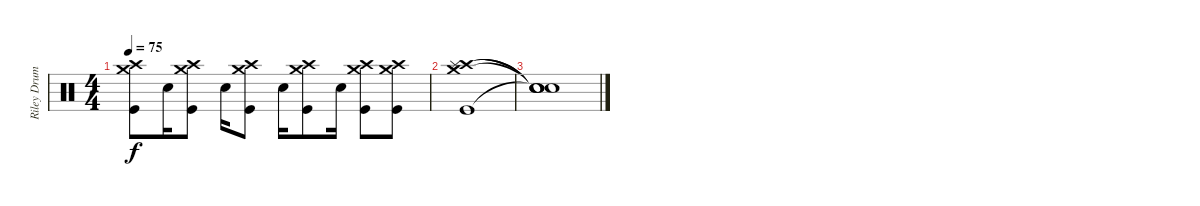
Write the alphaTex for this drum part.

\track ("Riley Drums" "Riley Drum") {instrument percussion}
\staff {score}
\articulation defaults
\ts (4 4)
\tempo 75
\clef neutral
\ks c
("Crash medium (hit)" "Crash high (hit)" "Kick (hit)").8{dy f} "Electric Snare (hit)".16 ("Crash medium (hit)" "Crash high (hit)" "Kick (hit)").8 "Electric Snare (hit)".16 ("Crash medium (hit)" "Crash high (hit)" "Kick (hit)").8 "Electric Snare (hit)".16 ("Crash medium (hit)" "Crash high (hit)" "Kick (hit)").8 "Electric Snare (hit)".16 ("Crash medium (hit)" "Crash high (hit)" "Kick (hit)").8 ("Crash medium (hit)" "Crash high (hit)" "Kick (hit)").8 |
("Crash medium (hit)" "Crash high (hit)" "Splash (hit)" "Kick (hit)").1 |
("Snare (hit)"{t} "Snare (hit)"{t} "Snare (hit)"{t} "Snare (hit)"{t}).1
